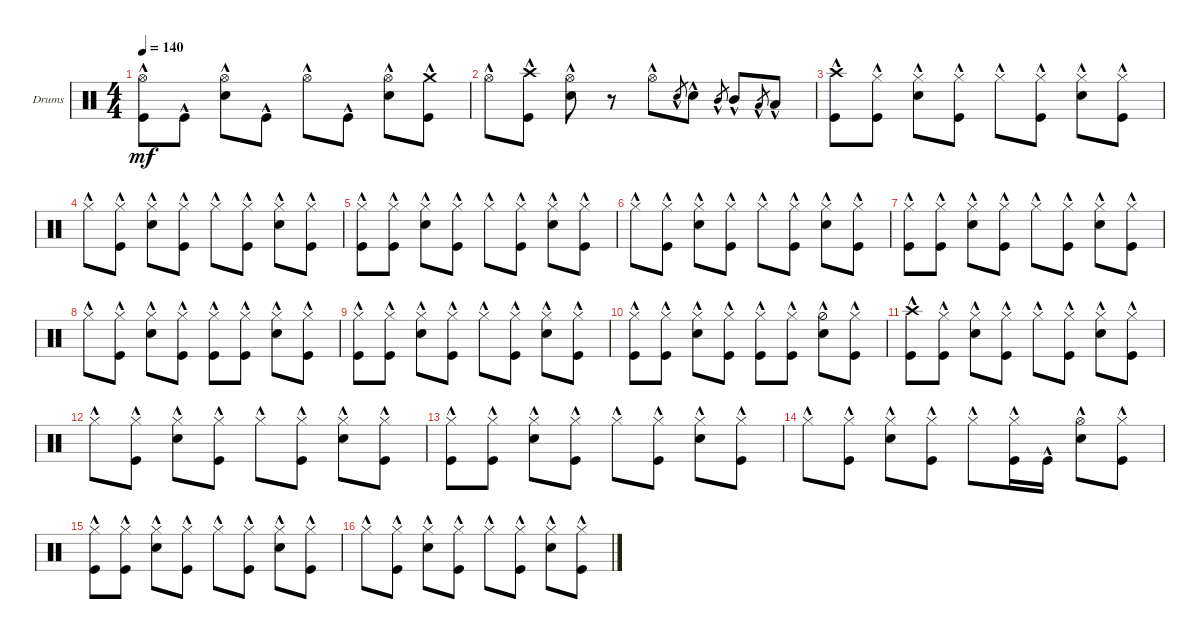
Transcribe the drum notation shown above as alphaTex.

\defaultSystemsLayout 4
\bracketExtendMode groupsimilarinstruments
\firstSystemTrackNameOrientation horizontal
\otherSystemsTrackNameOrientation horizontal
\track ("Drumkit" "Drums") {instrument percussion}
\staff {score}
\articulation defaults
\ts (4 4)
\tempo 140
\clef neutral
\ks c
("Kick (hit)"{hac} "Hi-Hat (open)"{hac}).8{dy mf} "Kick (hit)"{hac}.8 ("Hi-Hat (open)"{hac} "Snare (hit) 2"{hac}).8 "Kick (hit)"{hac}.8 "Hi-Hat (open)"{hac}.8 "Kick (hit)"{hac}.8 ("Hi-Hat (open)"{hac} "Snare (hit) 2"{hac}).8 ("Kick (hit)"{hac} "Crash medium (hit)"{hac}).8 |
"Hi-Hat (open)"{hac}.8 ("Kick (hit)"{hac} "Crash high (hit)"{hac}).8 ("Hi-Hat (open)"{hac} "Snare (hit) 2"{hac}).8 r.8 "Hi-Hat (open)"{hac}.8 "Snare (hit) 2"{hac}.8{gr} "Snare (hit) 2"{hac}.8 "Mid Tom (hit)"{hac}.8{gr} "Mid Tom (hit)"{hac}.8 "Low Tom (hit)"{hac}.8{gr} "Low Tom (hit)"{hac}.8 |
("Kick (hit)"{hac} "Crash high (hit)"{hac}).8 ("Hi-Hat (closed)"{hac} "Kick (hit)"{hac}).8 ("Hi-Hat (closed)"{hac} "Snare (hit) 2"{hac}).8 ("Hi-Hat (closed)"{hac} "Kick (hit)"{hac}).8 "Hi-Hat (closed)"{hac}.8 ("Hi-Hat (closed)"{hac} "Kick (hit)"{hac}).8 ("Hi-Hat (closed)"{hac} "Snare (hit) 2"{hac}).8 ("Hi-Hat (closed)"{hac} "Kick (hit)"{hac}).8 |
"Hi-Hat (closed)"{hac}.8 ("Hi-Hat (closed)"{hac} "Kick (hit)"{hac}).8 ("Hi-Hat (closed)"{hac} "Snare (hit) 2"{hac}).8 ("Hi-Hat (closed)"{hac} "Kick (hit)"{hac}).8 "Hi-Hat (closed)"{hac}.8 ("Hi-Hat (closed)"{hac} "Kick (hit)"{hac}).8 ("Hi-Hat (closed)"{hac} "Snare (hit) 2"{hac}).8 ("Hi-Hat (closed)"{hac} "Kick (hit)"{hac}).8 |
("Kick (hit)"{hac} "Hi-Hat (closed)"{hac}).8 ("Hi-Hat (closed)"{hac} "Kick (hit)"{hac}).8 ("Hi-Hat (closed)"{hac} "Snare (hit) 2"{hac}).8 ("Hi-Hat (closed)"{hac} "Kick (hit)"{hac}).8 "Hi-Hat (closed)"{hac}.8 ("Hi-Hat (closed)"{hac} "Kick (hit)"{hac}).8 ("Hi-Hat (closed)"{hac} "Snare (hit) 2"{hac}).8 ("Hi-Hat (closed)"{hac} "Kick (hit)"{hac}).8 |
"Hi-Hat (closed)"{hac}.8 ("Hi-Hat (closed)"{hac} "Kick (hit)"{hac}).8 ("Hi-Hat (closed)"{hac} "Snare (hit) 2"{hac}).8 ("Hi-Hat (closed)"{hac} "Kick (hit)"{hac}).8 "Hi-Hat (closed)"{hac}.8 ("Hi-Hat (closed)"{hac} "Kick (hit)"{hac}).8 ("Hi-Hat (closed)"{hac} "Snare (hit) 2"{hac}).8 ("Hi-Hat (closed)"{hac} "Kick (hit)"{hac}).8 |
("Kick (hit)"{hac} "Hi-Hat (closed)"{hac}).8 ("Hi-Hat (closed)"{hac} "Kick (hit)"{hac}).8 ("Hi-Hat (closed)"{hac} "Snare (hit) 2"{hac}).8 ("Hi-Hat (closed)"{hac} "Kick (hit)"{hac}).8 "Hi-Hat (closed)"{hac}.8 ("Hi-Hat (closed)"{hac} "Kick (hit)"{hac}).8 ("Hi-Hat (closed)"{hac} "Snare (hit) 2"{hac}).8 ("Hi-Hat (closed)"{hac} "Kick (hit)"{hac}).8 |
"Hi-Hat (closed)"{hac}.8 ("Hi-Hat (closed)"{hac} "Kick (hit)"{hac}).8 ("Hi-Hat (closed)"{hac} "Snare (hit) 2"{hac}).8 ("Hi-Hat (closed)"{hac} "Kick (hit)"{hac}).8 ("Hi-Hat (closed)"{hac} "Kick (hit)"{hac}).8 ("Hi-Hat (closed)"{hac} "Kick (hit)"{hac}).8 ("Hi-Hat (closed)"{hac} "Snare (hit) 2"{hac}).8 ("Hi-Hat (closed)"{hac} "Kick (hit)"{hac}).8 |
("Kick (hit)"{hac} "Hi-Hat (closed)"{hac}).8 ("Hi-Hat (closed)"{hac} "Kick (hit)"{hac}).8 ("Hi-Hat (closed)"{hac} "Snare (hit) 2"{hac}).8 ("Hi-Hat (closed)"{hac} "Kick (hit)"{hac}).8 "Hi-Hat (closed)"{hac}.8 ("Hi-Hat (closed)"{hac} "Kick (hit)"{hac}).8 ("Hi-Hat (closed)"{hac} "Snare (hit) 2"{hac}).8 ("Hi-Hat (closed)"{hac} "Kick (hit)"{hac}).8 |
("Hi-Hat (closed)"{hac} "Kick (hit)"{hac}).8 ("Hi-Hat (closed)"{hac} "Kick (hit)"{hac}).8 ("Hi-Hat (closed)"{hac} "Snare (hit) 2"{hac}).8 ("Hi-Hat (closed)"{hac} "Kick (hit)"{hac}).8 ("Hi-Hat (closed)"{hac} "Kick (hit)"{hac}).8 ("Hi-Hat (closed)"{hac} "Kick (hit)"{hac}).8 ("Hi-Hat (half)"{hac} "Snare (hit) 2"{hac}).8 ("Hi-Hat (closed)"{hac} "Kick (hit)"{hac}).8 |
("Kick (hit)"{hac} "Crash high (hit)"{hac}).8 ("Hi-Hat (closed)"{hac} "Kick (hit)"{hac}).8 ("Hi-Hat (closed)"{hac} "Snare (hit) 2"{hac}).8 ("Hi-Hat (closed)"{hac} "Kick (hit)"{hac}).8 "Hi-Hat (closed)"{hac}.8 ("Hi-Hat (closed)"{hac} "Kick (hit)"{hac}).8 ("Hi-Hat (closed)"{hac} "Snare (hit) 2"{hac}).8 ("Hi-Hat (closed)"{hac} "Kick (hit)"{hac}).8 |
"Hi-Hat (closed)"{hac}.8 ("Hi-Hat (closed)"{hac} "Kick (hit)"{hac}).8 ("Hi-Hat (closed)"{hac} "Snare (hit) 2"{hac}).8 ("Hi-Hat (closed)"{hac} "Kick (hit)"{hac}).8 "Hi-Hat (closed)"{hac}.8 ("Hi-Hat (closed)"{hac} "Kick (hit)"{hac}).8 ("Hi-Hat (closed)"{hac} "Snare (hit) 2"{hac}).8 ("Hi-Hat (closed)"{hac} "Kick (hit)"{hac}).8 |
("Kick (hit)"{hac} "Hi-Hat (closed)"{hac}).8 ("Hi-Hat (closed)"{hac} "Kick (hit)"{hac}).8 ("Hi-Hat (closed)"{hac} "Snare (hit) 2"{hac}).8 ("Hi-Hat (closed)"{hac} "Kick (hit)"{hac}).8 "Hi-Hat (closed)"{hac}.8 ("Hi-Hat (closed)"{hac} "Kick (hit)"{hac}).8 ("Hi-Hat (closed)"{hac} "Snare (hit) 2"{hac}).8 ("Hi-Hat (closed)"{hac} "Kick (hit)"{hac}).8 |
"Hi-Hat (closed)"{hac}.8 ("Hi-Hat (closed)"{hac} "Kick (hit)"{hac}).8 ("Hi-Hat (closed)"{hac} "Snare (hit) 2"{hac}).8 ("Hi-Hat (closed)"{hac} "Kick (hit)"{hac}).8 "Hi-Hat (closed)"{hac}.8 ("Hi-Hat (closed)"{hac} "Kick (hit)"{hac}).16 "Kick (hit)"{hac}.16 ("Snare (hit) 2"{hac} "Hi-Hat (open)"{hac}).8 ("Hi-Hat (closed)"{hac} "Kick (hit)"{hac}).8 |
("Kick (hit)"{hac} "Hi-Hat (closed)"{hac}).8 ("Hi-Hat (closed)"{hac} "Kick (hit)"{hac}).8 ("Hi-Hat (closed)"{hac} "Snare (hit) 2"{hac}).8 ("Hi-Hat (closed)"{hac} "Kick (hit)"{hac}).8 "Hi-Hat (closed)"{hac}.8 ("Hi-Hat (closed)"{hac} "Kick (hit)"{hac}).8 ("Hi-Hat (closed)"{hac} "Snare (hit) 2"{hac}).8 ("Hi-Hat (closed)"{hac} "Kick (hit)"{hac}).8 |
"Hi-Hat (closed)"{hac}.8 ("Hi-Hat (closed)"{hac} "Kick (hit)"{hac}).8 ("Hi-Hat (closed)"{hac} "Snare (hit) 2"{hac}).8 ("Hi-Hat (closed)"{hac} "Kick (hit)"{hac}).8 "Hi-Hat (closed)"{hac}.8 ("Hi-Hat (closed)"{hac} "Kick (hit)"{hac}).8 ("Hi-Hat (closed)"{hac} "Snare (hit) 2"{hac}).8 ("Hi-Hat (closed)"{hac} "Kick (hit)"{hac}).8
